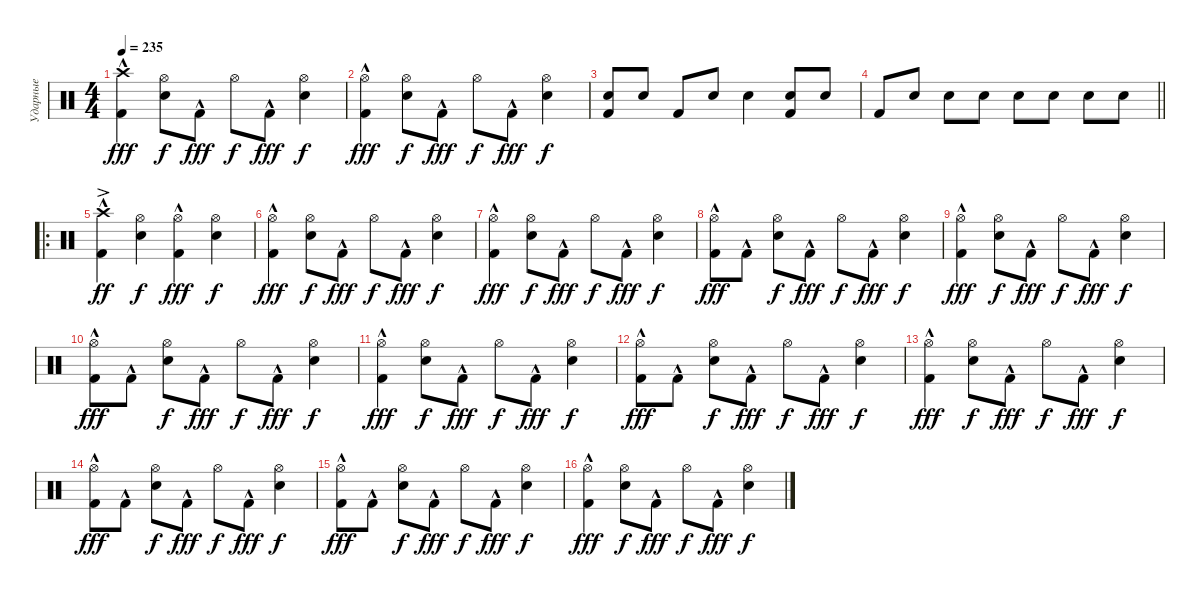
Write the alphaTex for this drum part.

\track ("Ударные" "Ударные") {instrument percussion}
\staff {score}
\articulation defaults
\ts (4 4)
\tempo 235
\clef neutral
\ks c
("Kick (hit) 2"{hac} "Crash high (hit)").4{dy fff} ("Snare (hit) 2" "Hi-Hat (open)").8{dy f} "Kick (hit) 2"{hac}.8{dy fff} "Hi-Hat (open)".8{dy f} "Kick (hit) 2"{hac}.8{dy fff} ("Snare (hit) 2" "Hi-Hat (open)").4{dy f} |
("Kick (hit) 2"{hac} "Hi-Hat (open)").4{dy fff} ("Snare (hit) 2" "Hi-Hat (open)").8{dy f} "Kick (hit) 2"{hac}.8{dy fff} "Hi-Hat (open)".8{dy f} "Kick (hit) 2"{hac}.8{dy fff} ("Snare (hit) 2" "Hi-Hat (open)").4{dy f} |
("Kick (hit) 2" "Snare (hit) 2").8 "Snare (hit) 2".8 "Kick (hit) 2".8 "Snare (hit) 2".8 "Snare (hit) 2".4 ("Kick (hit) 2" "Snare (hit) 2").8 "Snare (hit) 2".8 |
\barLineRight lightlight "Kick (hit) 2".8 "Snare (hit) 2".8 "Snare (hit) 2".8 "Snare (hit) 2".8 "Snare (hit) 2".8 "Snare (hit) 2".8 "Snare (hit) 2".8 "Snare (hit) 2".8
|
\ro
("Kick (hit) 2"{hac} "Crash high (hit)"{ac}).4{dy ff} ("Snare (hit) 2" "Hi-Hat (open)").4{dy f} ("Kick (hit) 2"{hac} "Hi-Hat (open)").4{dy fff} ("Snare (hit) 2" "Hi-Hat (open)").4{dy f} |
("Kick (hit) 2"{hac} "Hi-Hat (open)").4{dy fff} ("Snare (hit) 2" "Hi-Hat (open)").8{dy f} "Kick (hit) 2"{hac}.8{dy fff} "Hi-Hat (open)".8{dy f} "Kick (hit) 2"{hac}.8{dy fff} ("Snare (hit) 2" "Hi-Hat (open)").4{dy f} |
("Kick (hit) 2"{hac} "Hi-Hat (open)").4{dy fff} ("Snare (hit) 2" "Hi-Hat (open)").8{dy f} "Kick (hit) 2"{hac}.8{dy fff} "Hi-Hat (open)".8{dy f} "Kick (hit) 2"{hac}.8{dy fff} ("Snare (hit) 2" "Hi-Hat (open)").4{dy f} |
("Kick (hit) 2"{hac} "Hi-Hat (open)").8{dy fff} "Kick (hit) 2"{hac}.8 ("Snare (hit) 2" "Hi-Hat (open)").8{dy f} "Kick (hit) 2"{hac}.8{dy fff} "Hi-Hat (open)".8{dy f} "Kick (hit) 2"{hac}.8{dy fff} ("Snare (hit) 2" "Hi-Hat (open)").4{dy f} |
("Kick (hit) 2"{hac} "Hi-Hat (open)").4{dy fff} ("Snare (hit) 2" "Hi-Hat (open)").8{dy f} "Kick (hit) 2"{hac}.8{dy fff} "Hi-Hat (open)".8{dy f} "Kick (hit) 2"{hac}.8{dy fff} ("Snare (hit) 2" "Hi-Hat (open)").4{dy f} |
("Kick (hit) 2"{hac} "Hi-Hat (open)").8{dy fff} "Kick (hit) 2"{hac}.8 ("Snare (hit) 2" "Hi-Hat (open)").8{dy f} "Kick (hit) 2"{hac}.8{dy fff} "Hi-Hat (open)".8{dy f} "Kick (hit) 2"{hac}.8{dy fff} ("Snare (hit) 2" "Hi-Hat (open)").4{dy f} |
("Kick (hit) 2"{hac} "Hi-Hat (open)").4{dy fff} ("Snare (hit) 2" "Hi-Hat (open)").8{dy f} "Kick (hit) 2"{hac}.8{dy fff} "Hi-Hat (open)".8{dy f} "Kick (hit) 2"{hac}.8{dy fff} ("Snare (hit) 2" "Hi-Hat (open)").4{dy f} |
("Kick (hit) 2"{hac} "Hi-Hat (open)").8{dy fff} "Kick (hit) 2"{hac}.8 ("Snare (hit) 2" "Hi-Hat (open)").8{dy f} "Kick (hit) 2"{hac}.8{dy fff} "Hi-Hat (open)".8{dy f} "Kick (hit) 2"{hac}.8{dy fff} ("Snare (hit) 2" "Hi-Hat (open)").4{dy f} |
("Kick (hit) 2"{hac} "Hi-Hat (open)").4{dy fff} ("Snare (hit) 2" "Hi-Hat (open)").8{dy f} "Kick (hit) 2"{hac}.8{dy fff} "Hi-Hat (open)".8{dy f} "Kick (hit) 2"{hac}.8{dy fff} ("Snare (hit) 2" "Hi-Hat (open)").4{dy f} |
("Kick (hit) 2"{hac} "Hi-Hat (open)").8{dy fff} "Kick (hit) 2"{hac}.8 ("Snare (hit) 2" "Hi-Hat (open)").8{dy f} "Kick (hit) 2"{hac}.8{dy fff} "Hi-Hat (open)".8{dy f} "Kick (hit) 2"{hac}.8{dy fff} ("Snare (hit) 2" "Hi-Hat (open)").4{dy f} |
("Kick (hit) 2"{hac} "Hi-Hat (open)").8{dy fff} "Kick (hit) 2"{hac}.8 ("Snare (hit) 2" "Hi-Hat (open)").8{dy f} "Kick (hit) 2"{hac}.8{dy fff} "Hi-Hat (open)".8{dy f} "Kick (hit) 2"{hac}.8{dy fff} ("Snare (hit) 2" "Hi-Hat (open)").4{dy f} |
("Kick (hit) 2"{hac} "Hi-Hat (open)").4{dy fff} ("Snare (hit) 2" "Hi-Hat (open)").8{dy f} "Kick (hit) 2"{hac}.8{dy fff} "Hi-Hat (open)".8{dy f} "Kick (hit) 2"{hac}.8{dy fff} ("Snare (hit) 2" "Hi-Hat (open)").4{dy f}
